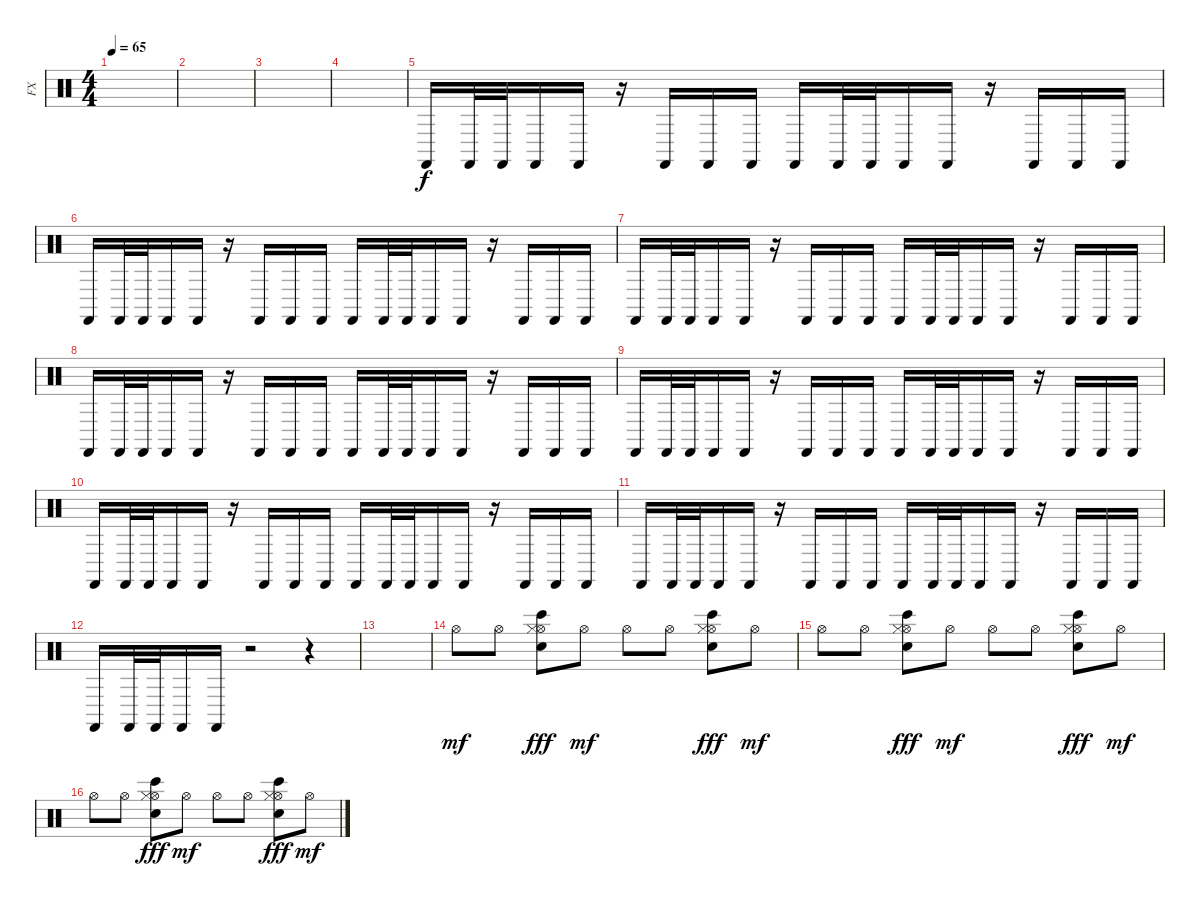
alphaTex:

\track ("FX" "FX") {instrument percussion}
\staff {score}
\articulation defaults
\ts (4 4)
\tempo 65
\clef neutral
\ks c
|
|
|
|
"Castanets (hit)".16 "Castanets (hit)".32 "Castanets (hit)".32 "Castanets (hit)".16 "Castanets (hit)".16 r.16 "Castanets (hit)".16 "Castanets (hit)".16 "Castanets (hit)".16 "Castanets (hit)".16 "Castanets (hit)".32 "Castanets (hit)".32 "Castanets (hit)".16 "Castanets (hit)".16 r.16 "Castanets (hit)".16 "Castanets (hit)".16 "Castanets (hit)".16 |
"Castanets (hit)".16 "Castanets (hit)".32 "Castanets (hit)".32 "Castanets (hit)".16 "Castanets (hit)".16 r.16 "Castanets (hit)".16 "Castanets (hit)".16 "Castanets (hit)".16 "Castanets (hit)".16 "Castanets (hit)".32 "Castanets (hit)".32 "Castanets (hit)".16 "Castanets (hit)".16 r.16 "Castanets (hit)".16 "Castanets (hit)".16 "Castanets (hit)".16 |
"Castanets (hit)".16 "Castanets (hit)".32 "Castanets (hit)".32 "Castanets (hit)".16 "Castanets (hit)".16 r.16 "Castanets (hit)".16 "Castanets (hit)".16 "Castanets (hit)".16 "Castanets (hit)".16 "Castanets (hit)".32 "Castanets (hit)".32 "Castanets (hit)".16 "Castanets (hit)".16 r.16 "Castanets (hit)".16 "Castanets (hit)".16 "Castanets (hit)".16 |
"Castanets (hit)".16 "Castanets (hit)".32 "Castanets (hit)".32 "Castanets (hit)".16 "Castanets (hit)".16 r.16 "Castanets (hit)".16 "Castanets (hit)".16 "Castanets (hit)".16 "Castanets (hit)".16 "Castanets (hit)".32 "Castanets (hit)".32 "Castanets (hit)".16 "Castanets (hit)".16 r.16 "Castanets (hit)".16 "Castanets (hit)".16 "Castanets (hit)".16 |
"Castanets (hit)".16 "Castanets (hit)".32 "Castanets (hit)".32 "Castanets (hit)".16 "Castanets (hit)".16 r.16 "Castanets (hit)".16 "Castanets (hit)".16 "Castanets (hit)".16 "Castanets (hit)".16 "Castanets (hit)".32 "Castanets (hit)".32 "Castanets (hit)".16 "Castanets (hit)".16 r.16 "Castanets (hit)".16 "Castanets (hit)".16 "Castanets (hit)".16 |
"Castanets (hit)".16 "Castanets (hit)".32 "Castanets (hit)".32 "Castanets (hit)".16 "Castanets (hit)".16 r.16 "Castanets (hit)".16 "Castanets (hit)".16 "Castanets (hit)".16 "Castanets (hit)".16 "Castanets (hit)".32 "Castanets (hit)".32 "Castanets (hit)".16 "Castanets (hit)".16 r.16 "Castanets (hit)".16 "Castanets (hit)".16 "Castanets (hit)".16 |
"Castanets (hit)".16 "Castanets (hit)".32 "Castanets (hit)".32 "Castanets (hit)".16 "Castanets (hit)".16 r.16 "Castanets (hit)".16 "Castanets (hit)".16 "Castanets (hit)".16 "Castanets (hit)".16 "Castanets (hit)".32 "Castanets (hit)".32 "Castanets (hit)".16 "Castanets (hit)".16 r.16 "Castanets (hit)".16 "Castanets (hit)".16 "Castanets (hit)".16 |
"Castanets (hit)".16 "Castanets (hit)".32 "Castanets (hit)".32 "Castanets (hit)".16 "Castanets (hit)".16 r.2 r.4 |
|
"Hi-Hat (open)".8{dy mf} "Hi-Hat (open)".8 ("Hi-Hat (open)" "Hi-Hat (closed)" "Bongo High (hit)" "Snare (hit) 2").8{dy fff} "Hi-Hat (open)".8{dy mf} "Hi-Hat (open)".8 "Hi-Hat (open)".8 ("Hi-Hat (open)" "Hi-Hat (closed)" "Bongo High (hit)" "Snare (hit) 2").8{dy fff} "Hi-Hat (open)".8{dy mf} |
"Hi-Hat (open)".8 "Hi-Hat (open)".8 ("Hi-Hat (open)" "Hi-Hat (closed)" "Bongo High (hit)" "Snare (hit) 2").8{dy fff} "Hi-Hat (open)".8{dy mf} "Hi-Hat (open)".8 "Hi-Hat (open)".8 ("Hi-Hat (open)" "Hi-Hat (closed)" "Bongo High (hit)" "Snare (hit) 2").8{dy fff} "Hi-Hat (open)".8{dy mf} |
"Hi-Hat (open)".8 "Hi-Hat (open)".8 ("Hi-Hat (open)" "Hi-Hat (closed)" "Bongo High (hit)" "Snare (hit) 2").8{dy fff} "Hi-Hat (open)".8{dy mf} "Hi-Hat (open)".8 "Hi-Hat (open)".8 ("Hi-Hat (open)" "Hi-Hat (closed)" "Bongo High (hit)" "Snare (hit) 2").8{dy fff} "Hi-Hat (open)".8{dy mf}
